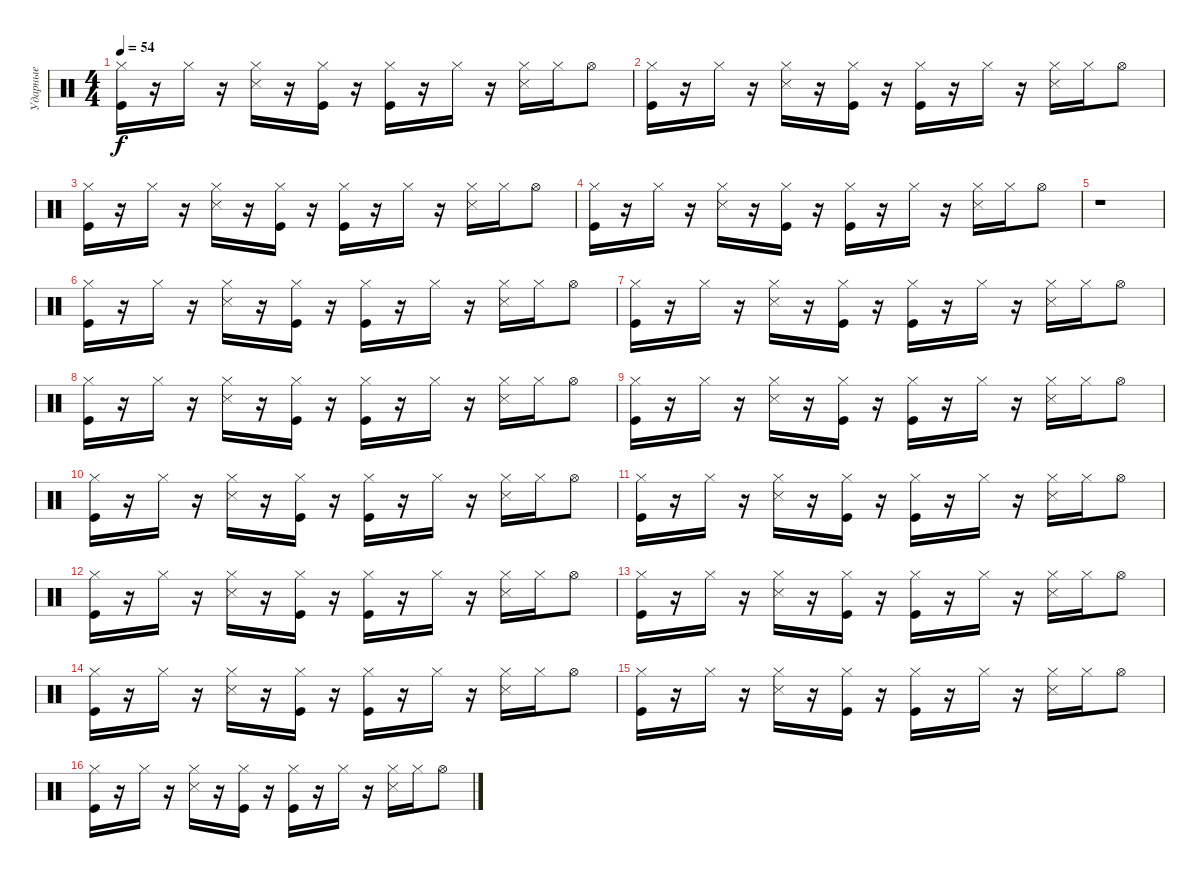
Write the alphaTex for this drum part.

\track ("Ударные" "Ударные") {instrument percussion}
\staff {score}
\articulation defaults
\ts (4 4)
\tempo 54
\clef neutral
\ks c
("Kick (hit)" "Hi-Hat (closed)").16{dy f} r.16 "Hi-Hat (closed)".16 r.16 ("Snare (side stick) 3" "Hi-Hat (closed)").16 r.16 ("Kick (hit)" "Hi-Hat (closed)").16 r.16 ("Kick (hit)" "Hi-Hat (closed)").16 r.16 "Hi-Hat (closed)".16 r.16 ("Hi-Hat (closed)" "Snare (side stick) 3").16 "Hi-Hat (closed)".16 "Hi-Hat (open)".8 |
("Kick (hit)" "Hi-Hat (closed)").16 r.16 "Hi-Hat (closed)".16 r.16 ("Snare (side stick) 3" "Hi-Hat (closed)").16 r.16 ("Kick (hit)" "Hi-Hat (closed)").16 r.16 ("Kick (hit)" "Hi-Hat (closed)").16 r.16 "Hi-Hat (closed)".16 r.16 ("Hi-Hat (closed)" "Snare (side stick) 3").16 "Hi-Hat (closed)".16 "Hi-Hat (open)".8 |
("Kick (hit)" "Hi-Hat (closed)").16 r.16 "Hi-Hat (closed)".16 r.16 ("Snare (side stick) 3" "Hi-Hat (closed)").16 r.16 ("Kick (hit)" "Hi-Hat (closed)").16 r.16 ("Kick (hit)" "Hi-Hat (closed)").16 r.16 "Hi-Hat (closed)".16 r.16 ("Hi-Hat (closed)" "Snare (side stick) 3").16 "Hi-Hat (closed)".16 "Hi-Hat (open)".8 |
("Kick (hit)" "Hi-Hat (closed)").16 r.16 "Hi-Hat (closed)".16 r.16 ("Snare (side stick) 3" "Hi-Hat (closed)").16 r.16 ("Kick (hit)" "Hi-Hat (closed)").16 r.16 ("Kick (hit)" "Hi-Hat (closed)").16 r.16 "Hi-Hat (closed)".16 r.16 ("Hi-Hat (closed)" "Snare (side stick) 3").16 "Hi-Hat (closed)".16 "Hi-Hat (open)".8 |
r.1 |
("Kick (hit)" "Hi-Hat (closed)").16 r.16 "Hi-Hat (closed)".16 r.16 ("Snare (side stick) 3" "Hi-Hat (closed)").16 r.16 ("Kick (hit)" "Hi-Hat (closed)").16 r.16 ("Kick (hit)" "Hi-Hat (closed)").16 r.16 "Hi-Hat (closed)".16 r.16 ("Hi-Hat (closed)" "Snare (side stick) 3").16 "Hi-Hat (closed)".16 "Hi-Hat (open)".8 |
("Kick (hit)" "Hi-Hat (closed)").16 r.16 "Hi-Hat (closed)".16 r.16 ("Snare (side stick) 3" "Hi-Hat (closed)").16 r.16 ("Kick (hit)" "Hi-Hat (closed)").16 r.16 ("Kick (hit)" "Hi-Hat (closed)").16 r.16 "Hi-Hat (closed)".16 r.16 ("Hi-Hat (closed)" "Snare (side stick) 3").16 "Hi-Hat (closed)".16 "Hi-Hat (open)".8 |
("Kick (hit)" "Hi-Hat (closed)").16 r.16 "Hi-Hat (closed)".16 r.16 ("Snare (side stick) 3" "Hi-Hat (closed)").16 r.16 ("Kick (hit)" "Hi-Hat (closed)").16 r.16 ("Kick (hit)" "Hi-Hat (closed)").16 r.16 "Hi-Hat (closed)".16 r.16 ("Hi-Hat (closed)" "Snare (side stick) 3").16 "Hi-Hat (closed)".16 "Hi-Hat (open)".8 |
("Kick (hit)" "Hi-Hat (closed)").16 r.16 "Hi-Hat (closed)".16 r.16 ("Snare (side stick) 3" "Hi-Hat (closed)").16 r.16 ("Kick (hit)" "Hi-Hat (closed)").16 r.16 ("Kick (hit)" "Hi-Hat (closed)").16 r.16 "Hi-Hat (closed)".16 r.16 ("Hi-Hat (closed)" "Snare (side stick) 3").16 "Hi-Hat (closed)".16 "Hi-Hat (open)".8 |
("Kick (hit)" "Hi-Hat (closed)").16 r.16 "Hi-Hat (closed)".16 r.16 ("Snare (side stick) 3" "Hi-Hat (closed)").16 r.16 ("Kick (hit)" "Hi-Hat (closed)").16 r.16 ("Kick (hit)" "Hi-Hat (closed)").16 r.16 "Hi-Hat (closed)".16 r.16 ("Hi-Hat (closed)" "Snare (side stick) 3").16 "Hi-Hat (closed)".16 "Hi-Hat (open)".8 |
("Kick (hit)" "Hi-Hat (closed)").16 r.16 "Hi-Hat (closed)".16 r.16 ("Snare (side stick) 3" "Hi-Hat (closed)").16 r.16 ("Kick (hit)" "Hi-Hat (closed)").16 r.16 ("Kick (hit)" "Hi-Hat (closed)").16 r.16 "Hi-Hat (closed)".16 r.16 ("Hi-Hat (closed)" "Snare (side stick) 3").16 "Hi-Hat (closed)".16 "Hi-Hat (open)".8 |
("Kick (hit)" "Hi-Hat (closed)").16 r.16 "Hi-Hat (closed)".16 r.16 ("Snare (side stick) 3" "Hi-Hat (closed)").16 r.16 ("Kick (hit)" "Hi-Hat (closed)").16 r.16 ("Kick (hit)" "Hi-Hat (closed)").16 r.16 "Hi-Hat (closed)".16 r.16 ("Hi-Hat (closed)" "Snare (side stick) 3").16 "Hi-Hat (closed)".16 "Hi-Hat (open)".8 |
("Kick (hit)" "Hi-Hat (closed)").16 r.16 "Hi-Hat (closed)".16 r.16 ("Snare (side stick) 3" "Hi-Hat (closed)").16 r.16 ("Kick (hit)" "Hi-Hat (closed)").16 r.16 ("Kick (hit)" "Hi-Hat (closed)").16 r.16 "Hi-Hat (closed)".16 r.16 ("Hi-Hat (closed)" "Snare (side stick) 3").16 "Hi-Hat (closed)".16 "Hi-Hat (open)".8 |
("Kick (hit)" "Hi-Hat (closed)").16 r.16 "Hi-Hat (closed)".16 r.16 ("Snare (side stick) 3" "Hi-Hat (closed)").16 r.16 ("Kick (hit)" "Hi-Hat (closed)").16 r.16 ("Kick (hit)" "Hi-Hat (closed)").16 r.16 "Hi-Hat (closed)".16 r.16 ("Hi-Hat (closed)" "Snare (side stick) 3").16 "Hi-Hat (closed)".16 "Hi-Hat (open)".8 |
("Kick (hit)" "Hi-Hat (closed)").16 r.16 "Hi-Hat (closed)".16 r.16 ("Snare (side stick) 3" "Hi-Hat (closed)").16 r.16 ("Kick (hit)" "Hi-Hat (closed)").16 r.16 ("Kick (hit)" "Hi-Hat (closed)").16 r.16 "Hi-Hat (closed)".16 r.16 ("Hi-Hat (closed)" "Snare (side stick) 3").16 "Hi-Hat (closed)".16 "Hi-Hat (open)".8 |
("Kick (hit)" "Hi-Hat (closed)").16 r.16 "Hi-Hat (closed)".16 r.16 ("Snare (side stick) 3" "Hi-Hat (closed)").16 r.16 ("Kick (hit)" "Hi-Hat (closed)").16 r.16 ("Kick (hit)" "Hi-Hat (closed)").16 r.16 "Hi-Hat (closed)".16 r.16 ("Hi-Hat (closed)" "Snare (side stick) 3").16 "Hi-Hat (closed)".16 "Hi-Hat (open)".8
